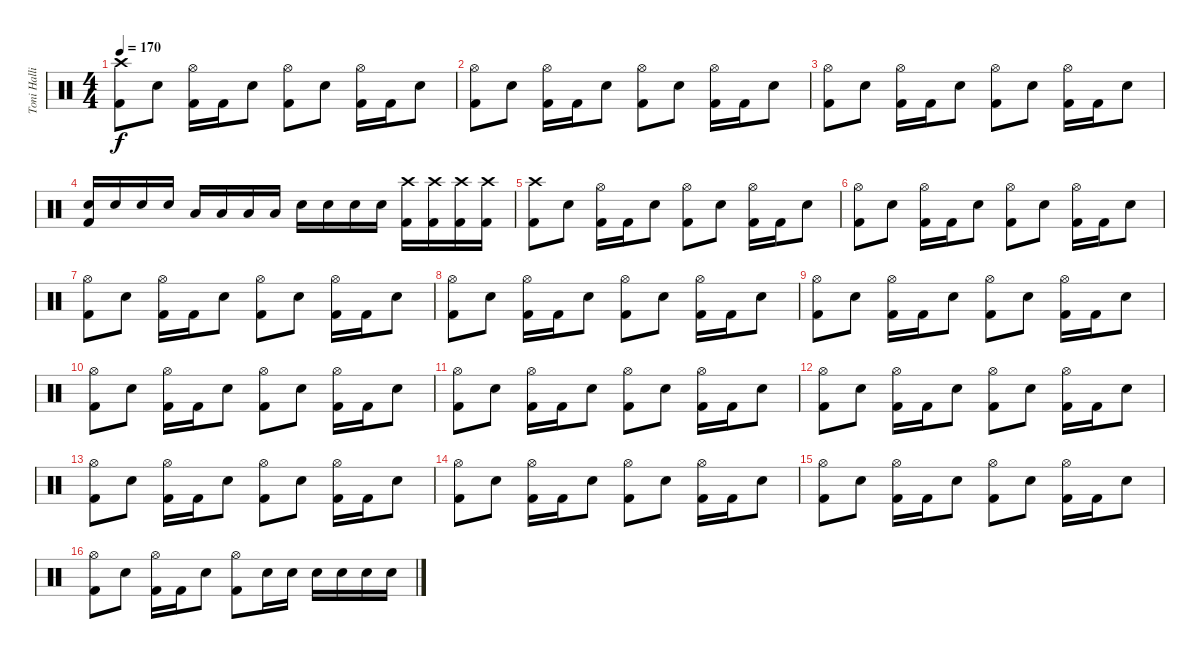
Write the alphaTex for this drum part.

\track ("Toni Hallio" "Toni Halli") {instrument percussion}
\staff {score}
\articulation defaults
\ts (4 4)
\tempo 170
\clef neutral
\ks c
("Crash high (hit)" "Kick (hit) 2").8{dy f} "Snare (hit) 2".8 ("Hi-Hat (open)" "Kick (hit) 2").16 "Kick (hit) 2".16 "Snare (hit) 2".8 ("Hi-Hat (open)" "Kick (hit) 2").8 "Snare (hit) 2".8 ("Hi-Hat (open)" "Kick (hit) 2").16 "Kick (hit) 2".16 "Snare (hit) 2".8 |
("Hi-Hat (open)" "Kick (hit) 2").8 "Snare (hit) 2".8 ("Hi-Hat (open)" "Kick (hit) 2").16 "Kick (hit) 2".16 "Snare (hit) 2".8 ("Hi-Hat (open)" "Kick (hit) 2").8 "Snare (hit) 2".8 ("Hi-Hat (open)" "Kick (hit) 2").16 "Kick (hit) 2".16 "Snare (hit) 2".8 |
("Hi-Hat (open)" "Kick (hit) 2").8 "Snare (hit) 2".8 ("Hi-Hat (open)" "Kick (hit) 2").16 "Kick (hit) 2".16 "Snare (hit) 2".8 ("Hi-Hat (open)" "Kick (hit) 2").8 "Snare (hit) 2".8 ("Hi-Hat (open)" "Kick (hit) 2").16 "Kick (hit) 2".16 "Snare (hit) 2".8 |
("Snare (hit) 2" "Kick (hit) 2").16 "Snare (hit) 2".16 "Snare (hit) 2".16 "Snare (hit) 2".16 "Low Floor Tom (hit)".16 "Low Floor Tom (hit)".16 "Low Floor Tom (hit)".16 "Low Floor Tom (hit)".16 "Snare (hit) 2".16 "Snare (hit) 2".16 "Snare (hit) 2".16 "Snare (hit) 2".16 ("Crash high (hit)" "Kick (hit) 2").16 ("Crash high (hit)" "Kick (hit) 2").16 ("Crash high (hit)" "Kick (hit) 2").16 ("Crash high (hit)" "Kick (hit) 2").16 |
("Crash high (hit)" "Kick (hit) 2").8 "Snare (hit) 2".8 ("Hi-Hat (open)" "Kick (hit) 2").16 "Kick (hit) 2".16 "Snare (hit) 2".8 ("Hi-Hat (open)" "Kick (hit) 2").8 "Snare (hit) 2".8 ("Hi-Hat (open)" "Kick (hit) 2").16 "Kick (hit) 2".16 "Snare (hit) 2".8 |
("Hi-Hat (open)" "Kick (hit) 2").8 "Snare (hit) 2".8 ("Hi-Hat (open)" "Kick (hit) 2").16 "Kick (hit) 2".16 "Snare (hit) 2".8 ("Hi-Hat (open)" "Kick (hit) 2").8 "Snare (hit) 2".8 ("Hi-Hat (open)" "Kick (hit) 2").16 "Kick (hit) 2".16 "Snare (hit) 2".8 |
("Hi-Hat (open)" "Kick (hit) 2").8 "Snare (hit) 2".8 ("Hi-Hat (open)" "Kick (hit) 2").16 "Kick (hit) 2".16 "Snare (hit) 2".8 ("Hi-Hat (open)" "Kick (hit) 2").8 "Snare (hit) 2".8 ("Hi-Hat (open)" "Kick (hit) 2").16 "Kick (hit) 2".16 "Snare (hit) 2".8 |
("Hi-Hat (open)" "Kick (hit) 2").8 "Snare (hit) 2".8 ("Hi-Hat (open)" "Kick (hit) 2").16 "Kick (hit) 2".16 "Snare (hit) 2".8 ("Hi-Hat (open)" "Kick (hit) 2").8 "Snare (hit) 2".8 ("Hi-Hat (open)" "Kick (hit) 2").16 "Kick (hit) 2".16 "Snare (hit) 2".8 |
("Hi-Hat (open)" "Kick (hit) 2").8 "Snare (hit) 2".8 ("Hi-Hat (open)" "Kick (hit) 2").16 "Kick (hit) 2".16 "Snare (hit) 2".8 ("Hi-Hat (open)" "Kick (hit) 2").8 "Snare (hit) 2".8 ("Hi-Hat (open)" "Kick (hit) 2").16 "Kick (hit) 2".16 "Snare (hit) 2".8 |
("Hi-Hat (open)" "Kick (hit) 2").8 "Snare (hit) 2".8 ("Hi-Hat (open)" "Kick (hit) 2").16 "Kick (hit) 2".16 "Snare (hit) 2".8 ("Hi-Hat (open)" "Kick (hit) 2").8 "Snare (hit) 2".8 ("Hi-Hat (open)" "Kick (hit) 2").16 "Kick (hit) 2".16 "Snare (hit) 2".8 |
("Hi-Hat (open)" "Kick (hit) 2").8 "Snare (hit) 2".8 ("Hi-Hat (open)" "Kick (hit) 2").16 "Kick (hit) 2".16 "Snare (hit) 2".8 ("Hi-Hat (open)" "Kick (hit) 2").8 "Snare (hit) 2".8 ("Hi-Hat (open)" "Kick (hit) 2").16 "Kick (hit) 2".16 "Snare (hit) 2".8 |
("Hi-Hat (open)" "Kick (hit) 2").8 "Snare (hit) 2".8 ("Hi-Hat (open)" "Kick (hit) 2").16 "Kick (hit) 2".16 "Snare (hit) 2".8 ("Hi-Hat (open)" "Kick (hit) 2").8 "Snare (hit) 2".8 ("Hi-Hat (open)" "Kick (hit) 2").16 "Kick (hit) 2".16 "Snare (hit) 2".8 |
("Hi-Hat (open)" "Kick (hit) 2").8 "Snare (hit) 2".8 ("Hi-Hat (open)" "Kick (hit) 2").16 "Kick (hit) 2".16 "Snare (hit) 2".8 ("Hi-Hat (open)" "Kick (hit) 2").8 "Snare (hit) 2".8 ("Hi-Hat (open)" "Kick (hit) 2").16 "Kick (hit) 2".16 "Snare (hit) 2".8 |
("Hi-Hat (open)" "Kick (hit) 2").8 "Snare (hit) 2".8 ("Hi-Hat (open)" "Kick (hit) 2").16 "Kick (hit) 2".16 "Snare (hit) 2".8 ("Hi-Hat (open)" "Kick (hit) 2").8 "Snare (hit) 2".8 ("Hi-Hat (open)" "Kick (hit) 2").16 "Kick (hit) 2".16 "Snare (hit) 2".8 |
("Hi-Hat (open)" "Kick (hit) 2").8 "Snare (hit) 2".8 ("Hi-Hat (open)" "Kick (hit) 2").16 "Kick (hit) 2".16 "Snare (hit) 2".8 ("Hi-Hat (open)" "Kick (hit) 2").8 "Snare (hit) 2".8 ("Hi-Hat (open)" "Kick (hit) 2").16 "Kick (hit) 2".16 "Snare (hit) 2".8 |
("Hi-Hat (open)" "Kick (hit) 2").8 "Snare (hit) 2".8 ("Hi-Hat (open)" "Kick (hit) 2").16 "Kick (hit) 2".16 "Snare (hit) 2".8 ("Hi-Hat (open)" "Kick (hit) 2").8 "Snare (hit) 2".16 "Snare (hit) 2".16 "Snare (hit) 2".16 "Snare (hit) 2".16 "Snare (hit) 2".16 "Snare (hit) 2".16
